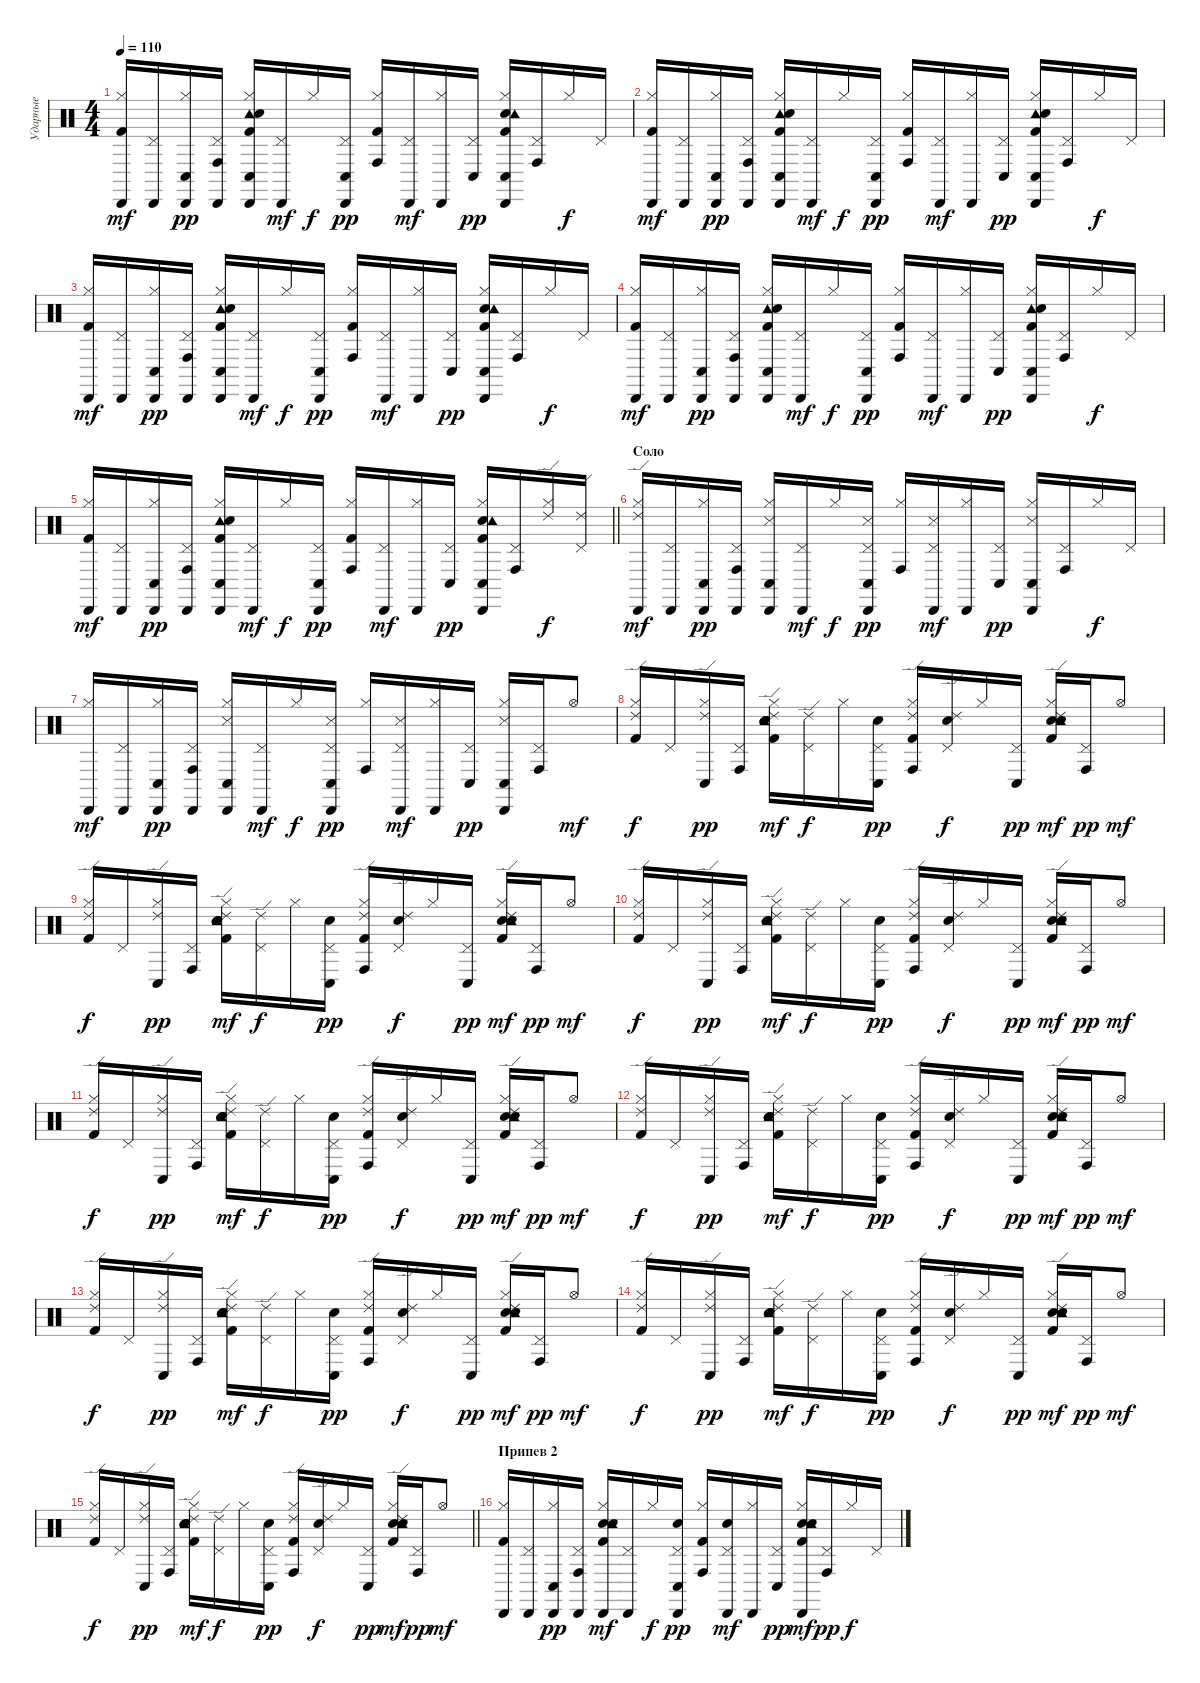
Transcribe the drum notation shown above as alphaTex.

\track ("Ударные" "Ударные") {instrument percussion}
\staff {score}
\articulation defaults
\ts (4 4)
\tempo 110
\clef neutral
\ks c
("Kick (hit) 2" "Hi-Hat (closed)" "Cabasa (hit)").16{dy mf} ("Pedal Hi-Hat (hit)" "Cabasa (hit)").16 ("Hi-Hat (closed)" "Cabasa (hit)" "Conga low (hit)").16{dy pp} ("Pedal Hi-Hat (hit)" "Cabasa (hit)" "Conga high (hit)").16 ("Tambourine (hit)" "Snare (hit) 2" "Kick (hit) 2" "Hi-Hat (closed)" "Cabasa (hit)" "Conga low (hit)").16 ("Pedal Hi-Hat (hit)" "Cabasa (hit)").16{dy mf} "Hi-Hat (closed)".16{dy f} ("Pedal Hi-Hat (hit)" "Cabasa (hit)" "Conga low (hit)").16{dy pp} ("Kick (hit) 2" "Hi-Hat (closed)" "Conga high (hit)").16 ("Pedal Hi-Hat (hit)" "Cabasa (hit)").16{dy mf} ("Hi-Hat (closed)" "Cabasa (hit)").16 ("Pedal Hi-Hat (hit)" "Conga low (hit)").16{dy pp} ("Snare (hit) 2" "Kick (hit) 2" "Tambourine (hit)" "Hi-Hat (closed)" "Cabasa (hit)" "Conga low (hit)").16 ("Pedal Hi-Hat (hit)" "Conga high (hit)").16 "Hi-Hat (closed)".16{dy f} "Pedal Hi-Hat (hit)".16 |
("Kick (hit) 2" "Hi-Hat (closed)" "Cabasa (hit)").16{dy mf} ("Pedal Hi-Hat (hit)" "Cabasa (hit)").16 ("Hi-Hat (closed)" "Cabasa (hit)" "Conga low (hit)").16{dy pp} ("Pedal Hi-Hat (hit)" "Cabasa (hit)" "Conga high (hit)").16 ("Kick (hit) 2" "Tambourine (hit)" "Snare (hit) 2" "Hi-Hat (closed)" "Cabasa (hit)" "Conga low (hit)").16 ("Pedal Hi-Hat (hit)" "Cabasa (hit)").16{dy mf} "Hi-Hat (closed)".16{dy f} ("Pedal Hi-Hat (hit)" "Cabasa (hit)" "Conga low (hit)").16{dy pp} ("Kick (hit) 2" "Hi-Hat (closed)" "Conga high (hit)").16 ("Pedal Hi-Hat (hit)" "Cabasa (hit)").16{dy mf} ("Hi-Hat (closed)" "Cabasa (hit)").16 ("Pedal Hi-Hat (hit)" "Conga low (hit)").16{dy pp} ("Tambourine (hit)" "Snare (hit) 2" "Kick (hit) 2" "Hi-Hat (closed)" "Cabasa (hit)" "Conga low (hit)").16 ("Pedal Hi-Hat (hit)" "Conga high (hit)").16 "Hi-Hat (closed)".16{dy f} "Pedal Hi-Hat (hit)".16 |
("Kick (hit) 2" "Hi-Hat (closed)" "Cabasa (hit)").16{dy mf} ("Pedal Hi-Hat (hit)" "Cabasa (hit)").16 ("Hi-Hat (closed)" "Cabasa (hit)" "Conga low (hit)").16{dy pp} ("Pedal Hi-Hat (hit)" "Cabasa (hit)" "Conga high (hit)").16 ("Kick (hit) 2" "Tambourine (hit)" "Snare (hit) 2" "Hi-Hat (closed)" "Cabasa (hit)" "Conga low (hit)").16 ("Pedal Hi-Hat (hit)" "Cabasa (hit)").16{dy mf} "Hi-Hat (closed)".16{dy f} ("Pedal Hi-Hat (hit)" "Cabasa (hit)" "Conga low (hit)").16{dy pp} ("Kick (hit) 2" "Hi-Hat (closed)" "Conga high (hit)").16 ("Pedal Hi-Hat (hit)" "Cabasa (hit)").16{dy mf} ("Hi-Hat (closed)" "Cabasa (hit)").16 ("Pedal Hi-Hat (hit)" "Conga low (hit)").16{dy pp} ("Kick (hit) 2" "Snare (hit) 2" "Tambourine (hit)" "Hi-Hat (closed)" "Cabasa (hit)" "Conga low (hit)").16 ("Pedal Hi-Hat (hit)" "Conga high (hit)").16 "Hi-Hat (closed)".16{dy f} "Pedal Hi-Hat (hit)".16 |
("Kick (hit) 2" "Hi-Hat (closed)" "Cabasa (hit)").16{dy mf} ("Pedal Hi-Hat (hit)" "Cabasa (hit)").16 ("Hi-Hat (closed)" "Cabasa (hit)" "Conga low (hit)").16{dy pp} ("Pedal Hi-Hat (hit)" "Cabasa (hit)" "Conga high (hit)").16 ("Tambourine (hit)" "Kick (hit) 2" "Snare (hit) 2" "Hi-Hat (closed)" "Cabasa (hit)" "Conga low (hit)").16 ("Pedal Hi-Hat (hit)" "Cabasa (hit)").16{dy mf} "Hi-Hat (closed)".16{dy f} ("Pedal Hi-Hat (hit)" "Cabasa (hit)" "Conga low (hit)").16{dy pp} ("Kick (hit) 2" "Hi-Hat (closed)" "Conga high (hit)").16 ("Pedal Hi-Hat (hit)" "Cabasa (hit)").16{dy mf} ("Hi-Hat (closed)" "Cabasa (hit)").16 ("Pedal Hi-Hat (hit)" "Conga low (hit)").16{dy pp} ("Tambourine (hit)" "Snare (hit) 2" "Kick (hit) 2" "Hi-Hat (closed)" "Cabasa (hit)" "Conga low (hit)").16 ("Pedal Hi-Hat (hit)" "Conga high (hit)").16 "Hi-Hat (closed)".16{dy f} "Pedal Hi-Hat (hit)".16 |
\barLineRight lightlight
("Kick (hit) 2" "Hi-Hat (closed)" "Cabasa (hit)").16{dy mf} ("Pedal Hi-Hat (hit)" "Cabasa (hit)").16 ("Hi-Hat (closed)" "Cabasa (hit)" "Conga low (hit)").16{dy pp} ("Pedal Hi-Hat (hit)" "Cabasa (hit)" "Conga high (hit)").16 ("Tambourine (hit)" "Kick (hit) 2" "Snare (hit) 2" "Hi-Hat (closed)" "Cabasa (hit)" "Conga low (hit)").16 ("Pedal Hi-Hat (hit)" "Cabasa (hit)").16{dy mf} "Hi-Hat (closed)".16{dy f} ("Pedal Hi-Hat (hit)" "Cabasa (hit)" "Conga low (hit)").16{dy pp} ("Kick (hit) 2" "Hi-Hat (closed)" "Conga high (hit)").16 ("Pedal Hi-Hat (hit)" "Cabasa (hit)").16{dy mf} ("Hi-Hat (closed)" "Cabasa (hit)").16 ("Pedal Hi-Hat (hit)" "Conga low (hit)").16{dy pp} ("Snare (hit) 2" "Kick (hit) 2" "Tambourine (hit)" "Hi-Hat (closed)" "Cabasa (hit)" "Conga low (hit)").16 ("Pedal Hi-Hat (hit)" "Conga high (hit)").16 ("Hi-Hat (closed)" "Ride (edge) 2").16{dy f} ("Pedal Hi-Hat (hit)" "Ride (edge) 2").16 |
\section ("" "Соло")
("Hi-Hat (closed)" "Ride (edge) 2" "Cabasa (hit)").16{dy mf} ("Pedal Hi-Hat (hit)" "Cabasa (hit)").16 ("Hi-Hat (closed)" "Cabasa (hit)" "Conga low (hit)").16{dy pp} ("Pedal Hi-Hat (hit)" "Cabasa (hit)" "Conga high (hit)").16 ("Snare (side stick) 3" "Hi-Hat (closed)" "Cabasa (hit)" "Conga low (hit)").16 ("Pedal Hi-Hat (hit)" "Cabasa (hit)").16{dy mf} "Hi-Hat (closed)".16{dy f} ("Snare (side stick) 3" "Pedal Hi-Hat (hit)" "Cabasa (hit)" "Conga low (hit)").16{dy pp} ("Hi-Hat (closed)" "Conga high (hit)").16 ("Snare (side stick) 3" "Pedal Hi-Hat (hit)" "Cabasa (hit)").16{dy mf} ("Hi-Hat (closed)" "Cabasa (hit)").16 ("Pedal Hi-Hat (hit)" "Conga low (hit)").16{dy pp} ("Snare (side stick) 3" "Hi-Hat (closed)" "Cabasa (hit)" "Conga low (hit)").16 ("Pedal Hi-Hat (hit)" "Conga high (hit)").16 "Hi-Hat (closed)".16{dy f} "Pedal Hi-Hat (hit)".16 |
("Hi-Hat (closed)" "Cabasa (hit)").16{dy mf} ("Pedal Hi-Hat (hit)" "Cabasa (hit)").16 ("Hi-Hat (closed)" "Cabasa (hit)" "Conga low (hit)").16{dy pp} ("Pedal Hi-Hat (hit)" "Cabasa (hit)" "Conga high (hit)").16 ("Snare (side stick) 3" "Hi-Hat (closed)" "Cabasa (hit)" "Conga low (hit)").16 ("Pedal Hi-Hat (hit)" "Cabasa (hit)").16{dy mf} "Hi-Hat (closed)".16{dy f} ("Snare (side stick) 3" "Pedal Hi-Hat (hit)" "Cabasa (hit)" "Conga low (hit)").16{dy pp} ("Hi-Hat (closed)" "Conga high (hit)").16 ("Snare (side stick) 3" "Pedal Hi-Hat (hit)" "Cabasa (hit)").16{dy mf} ("Hi-Hat (closed)" "Cabasa (hit)").16 ("Pedal Hi-Hat (hit)" "Conga low (hit)").16{dy pp} ("Snare (side stick) 3" "Hi-Hat (closed)" "Cabasa (hit)" "Conga low (hit)").16 ("Pedal Hi-Hat (hit)" "Conga high (hit)").16 "Hi-Hat (open)".8{dy mf} |
("Kick (hit) 2" "Hi-Hat (closed)" "Ride (edge) 2").16{dy f} "Pedal Hi-Hat (hit)".16 ("Hi-Hat (closed)" "Ride (edge) 2" "Conga low (hit)").16{dy pp} ("Pedal Hi-Hat (hit)" "Conga high (hit)").16 ("Electric Snare (hit)" "Kick (hit) 2" "Tambourine (hit)" "Snare (hit) 2" "Hi-Hat (closed)" "Ride (edge) 2").16{dy mf} ("Pedal Hi-Hat (hit)" "Ride (edge) 2").16{dy f} "Hi-Hat (closed)".16 ("Electric Snare (hit)" "Pedal Hi-Hat (hit)" "Conga low (hit)").16{dy pp} ("Kick (hit) 2" "Hi-Hat (closed)" "Ride (edge) 2" "Conga high (hit)").16 ("Electric Snare (hit)" "Pedal Hi-Hat (hit)" "Ride (edge) 2").16{dy f} "Hi-Hat (closed)".16 ("Pedal Hi-Hat (hit)" "Conga low (hit)").16{dy pp} ("Electric Snare (hit)" "Tambourine (hit)" "Snare (hit) 2" "Kick (hit) 2" "Hi-Hat (closed)" "Ride (edge) 2").16{dy mf} ("Pedal Hi-Hat (hit)" "Conga high (hit)").16{dy pp} "Hi-Hat (open)".8{dy mf} |
("Kick (hit) 2" "Hi-Hat (closed)" "Ride (edge) 2").16{dy f} "Pedal Hi-Hat (hit)".16 ("Hi-Hat (closed)" "Ride (edge) 2" "Conga low (hit)").16{dy pp} ("Pedal Hi-Hat (hit)" "Conga high (hit)").16 ("Electric Snare (hit)" "Kick (hit) 2" "Tambourine (hit)" "Snare (hit) 2" "Hi-Hat (closed)" "Ride (edge) 2").16{dy mf} ("Pedal Hi-Hat (hit)" "Ride (edge) 2").16{dy f} "Hi-Hat (closed)".16 ("Electric Snare (hit)" "Pedal Hi-Hat (hit)" "Conga low (hit)").16{dy pp} ("Kick (hit) 2" "Hi-Hat (closed)" "Ride (edge) 2" "Conga high (hit)").16 ("Electric Snare (hit)" "Pedal Hi-Hat (hit)" "Ride (edge) 2").16{dy f} "Hi-Hat (closed)".16 ("Pedal Hi-Hat (hit)" "Conga low (hit)").16{dy pp} ("Electric Snare (hit)" "Tambourine (hit)" "Snare (hit) 2" "Kick (hit) 2" "Hi-Hat (closed)" "Ride (edge) 2").16{dy mf} ("Pedal Hi-Hat (hit)" "Conga high (hit)").16{dy pp} "Hi-Hat (open)".8{dy mf} |
("Kick (hit) 2" "Hi-Hat (closed)" "Ride (edge) 2").16{dy f} "Pedal Hi-Hat (hit)".16 ("Hi-Hat (closed)" "Ride (edge) 2" "Conga low (hit)").16{dy pp} ("Pedal Hi-Hat (hit)" "Conga high (hit)").16 ("Electric Snare (hit)" "Kick (hit) 2" "Tambourine (hit)" "Snare (hit) 2" "Hi-Hat (closed)" "Ride (edge) 2").16{dy mf} ("Pedal Hi-Hat (hit)" "Ride (edge) 2").16{dy f} "Hi-Hat (closed)".16 ("Electric Snare (hit)" "Pedal Hi-Hat (hit)" "Conga low (hit)").16{dy pp} ("Kick (hit) 2" "Hi-Hat (closed)" "Ride (edge) 2" "Conga high (hit)").16 ("Electric Snare (hit)" "Pedal Hi-Hat (hit)" "Ride (edge) 2").16{dy f} "Hi-Hat (closed)".16 ("Pedal Hi-Hat (hit)" "Conga low (hit)").16{dy pp} ("Electric Snare (hit)" "Tambourine (hit)" "Snare (hit) 2" "Kick (hit) 2" "Hi-Hat (closed)" "Ride (edge) 2").16{dy mf} ("Pedal Hi-Hat (hit)" "Conga high (hit)").16{dy pp} "Hi-Hat (open)".8{dy mf} |
("Kick (hit) 2" "Hi-Hat (closed)" "Ride (edge) 2").16{dy f} "Pedal Hi-Hat (hit)".16 ("Hi-Hat (closed)" "Ride (edge) 2" "Conga low (hit)").16{dy pp} ("Pedal Hi-Hat (hit)" "Conga high (hit)").16 ("Electric Snare (hit)" "Kick (hit) 2" "Tambourine (hit)" "Snare (hit) 2" "Hi-Hat (closed)" "Ride (edge) 2").16{dy mf} ("Pedal Hi-Hat (hit)" "Ride (edge) 2").16{dy f} "Hi-Hat (closed)".16 ("Electric Snare (hit)" "Pedal Hi-Hat (hit)" "Conga low (hit)").16{dy pp} ("Kick (hit) 2" "Hi-Hat (closed)" "Ride (edge) 2" "Conga high (hit)").16 ("Electric Snare (hit)" "Pedal Hi-Hat (hit)" "Ride (edge) 2").16{dy f} "Hi-Hat (closed)".16 ("Pedal Hi-Hat (hit)" "Conga low (hit)").16{dy pp} ("Electric Snare (hit)" "Tambourine (hit)" "Snare (hit) 2" "Kick (hit) 2" "Hi-Hat (closed)" "Ride (edge) 2").16{dy mf} ("Pedal Hi-Hat (hit)" "Conga high (hit)").16{dy pp} "Hi-Hat (open)".8{dy mf} |
("Kick (hit) 2" "Hi-Hat (closed)" "Ride (edge) 2").16{dy f} "Pedal Hi-Hat (hit)".16 ("Hi-Hat (closed)" "Ride (edge) 2" "Conga low (hit)").16{dy pp} ("Pedal Hi-Hat (hit)" "Conga high (hit)").16 ("Electric Snare (hit)" "Kick (hit) 2" "Tambourine (hit)" "Snare (hit) 2" "Hi-Hat (closed)" "Ride (edge) 2").16{dy mf} ("Pedal Hi-Hat (hit)" "Ride (edge) 2").16{dy f} "Hi-Hat (closed)".16 ("Electric Snare (hit)" "Pedal Hi-Hat (hit)" "Conga low (hit)").16{dy pp} ("Kick (hit) 2" "Hi-Hat (closed)" "Ride (edge) 2" "Conga high (hit)").16 ("Electric Snare (hit)" "Pedal Hi-Hat (hit)" "Ride (edge) 2").16{dy f} "Hi-Hat (closed)".16 ("Pedal Hi-Hat (hit)" "Conga low (hit)").16{dy pp} ("Electric Snare (hit)" "Tambourine (hit)" "Snare (hit) 2" "Kick (hit) 2" "Hi-Hat (closed)" "Ride (edge) 2").16{dy mf} ("Pedal Hi-Hat (hit)" "Conga high (hit)").16{dy pp} "Hi-Hat (open)".8{dy mf} |
("Kick (hit) 2" "Hi-Hat (closed)" "Ride (edge) 2").16{dy f} "Pedal Hi-Hat (hit)".16 ("Hi-Hat (closed)" "Ride (edge) 2" "Conga low (hit)").16{dy pp} ("Pedal Hi-Hat (hit)" "Conga high (hit)").16 ("Electric Snare (hit)" "Kick (hit) 2" "Tambourine (hit)" "Snare (hit) 2" "Hi-Hat (closed)" "Ride (edge) 2").16{dy mf} ("Pedal Hi-Hat (hit)" "Ride (edge) 2").16{dy f} "Hi-Hat (closed)".16 ("Electric Snare (hit)" "Pedal Hi-Hat (hit)" "Conga low (hit)").16{dy pp} ("Kick (hit) 2" "Hi-Hat (closed)" "Ride (edge) 2" "Conga high (hit)").16 ("Electric Snare (hit)" "Pedal Hi-Hat (hit)" "Ride (edge) 2").16{dy f} "Hi-Hat (closed)".16 ("Pedal Hi-Hat (hit)" "Conga low (hit)").16{dy pp} ("Electric Snare (hit)" "Tambourine (hit)" "Snare (hit) 2" "Kick (hit) 2" "Hi-Hat (closed)" "Ride (edge) 2").16{dy mf} ("Pedal Hi-Hat (hit)" "Conga high (hit)").16{dy pp} "Hi-Hat (open)".8{dy mf} |
("Kick (hit) 2" "Hi-Hat (closed)" "Ride (edge) 2").16{dy f} "Pedal Hi-Hat (hit)".16 ("Hi-Hat (closed)" "Ride (edge) 2" "Conga low (hit)").16{dy pp} ("Pedal Hi-Hat (hit)" "Conga high (hit)").16 ("Electric Snare (hit)" "Kick (hit) 2" "Tambourine (hit)" "Snare (hit) 2" "Hi-Hat (closed)" "Ride (edge) 2").16{dy mf} ("Pedal Hi-Hat (hit)" "Ride (edge) 2").16{dy f} "Hi-Hat (closed)".16 ("Electric Snare (hit)" "Pedal Hi-Hat (hit)" "Conga low (hit)").16{dy pp} ("Kick (hit) 2" "Hi-Hat (closed)" "Ride (edge) 2" "Conga high (hit)").16 ("Electric Snare (hit)" "Pedal Hi-Hat (hit)" "Ride (edge) 2").16{dy f} "Hi-Hat (closed)".16 ("Pedal Hi-Hat (hit)" "Conga low (hit)").16{dy pp} ("Electric Snare (hit)" "Tambourine (hit)" "Snare (hit) 2" "Kick (hit) 2" "Hi-Hat (closed)" "Ride (edge) 2").16{dy mf} ("Pedal Hi-Hat (hit)" "Conga high (hit)").16{dy pp} "Hi-Hat (open)".8{dy mf} |
\barLineRight lightlight
("Kick (hit) 2" "Hi-Hat (closed)" "Ride (edge) 2").16{dy f} "Pedal Hi-Hat (hit)".16 ("Hi-Hat (closed)" "Ride (edge) 2" "Conga low (hit)").16{dy pp} ("Pedal Hi-Hat (hit)" "Conga high (hit)").16 ("Electric Snare (hit)" "Kick (hit) 2" "Tambourine (hit)" "Snare (hit) 2" "Hi-Hat (closed)" "Ride (edge) 2").16{dy mf} ("Pedal Hi-Hat (hit)" "Ride (edge) 2").16{dy f} "Hi-Hat (closed)".16 ("Electric Snare (hit)" "Pedal Hi-Hat (hit)" "Conga low (hit)").16{dy pp} ("Kick (hit) 2" "Hi-Hat (closed)" "Ride (edge) 2" "Conga high (hit)").16 ("Electric Snare (hit)" "Pedal Hi-Hat (hit)" "Ride (edge) 2").16{dy f} "Hi-Hat (closed)".16 ("Pedal Hi-Hat (hit)" "Conga low (hit)").16{dy pp} ("Electric Snare (hit)" "Tambourine (hit)" "Snare (hit) 2" "Kick (hit) 2" "Hi-Hat (closed)" "Ride (edge) 2").16{dy mf} ("Pedal Hi-Hat (hit)" "Conga high (hit)").16{dy pp} "Hi-Hat (open)".8{dy mf} |
\section ("" "Припев 2")
("Kick (hit) 2" "Hi-Hat (closed)" "Cabasa (hit)").16 ("Pedal Hi-Hat (hit)" "Cabasa (hit)").16 ("Hi-Hat (closed)" "Cabasa (hit)" "Conga low (hit)").16{dy pp} ("Pedal Hi-Hat (hit)" "Cabasa (hit)" "Conga high (hit)").16 ("Kick (hit) 2" "Snare (hit) 2" "Tambourine (hit)" "Electric Snare (hit)" "Hi-Hat (closed)" "Cabasa (hit)").16{dy mf} ("Pedal Hi-Hat (hit)" "Cabasa (hit)").16 "Hi-Hat (closed)".16{dy f} ("Electric Snare (hit)" "Pedal Hi-Hat (hit)" "Cabasa (hit)" "Conga low (hit)").16{dy pp} ("Kick (hit) 2" "Hi-Hat (closed)" "Conga high (hit)").16 ("Electric Snare (hit)" "Pedal Hi-Hat (hit)" "Cabasa (hit)").16{dy mf} ("Hi-Hat (closed)" "Cabasa (hit)").16 ("Pedal Hi-Hat (hit)" "Conga low (hit)").16{dy pp} ("Electric Snare (hit)" "Kick (hit) 2" "Tambourine (hit)" "Snare (hit) 2" "Hi-Hat (closed)" "Cabasa (hit)").16{dy mf} ("Pedal Hi-Hat (hit)" "Conga high (hit)").16{dy pp} "Hi-Hat (closed)".16{dy f} "Pedal Hi-Hat (hit)".16
